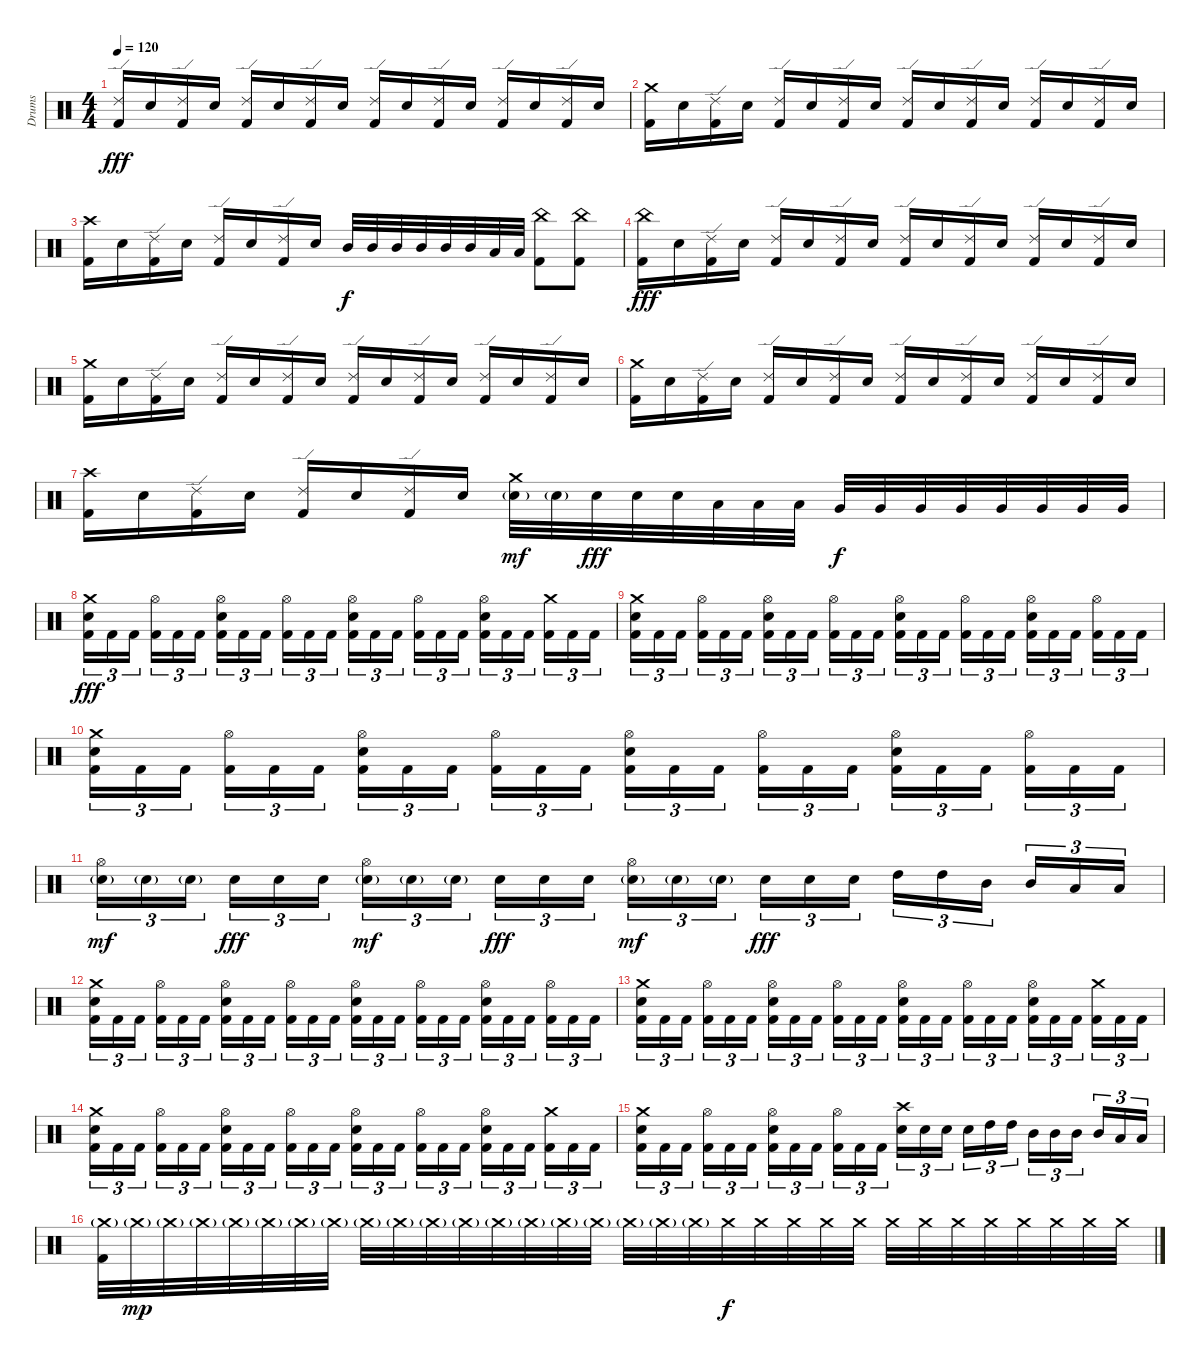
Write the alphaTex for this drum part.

\track ("Drums" "Drums") {instrument percussion}
\staff {score}
\articulation defaults
\ts (4 4)
\tempo 120
\clef neutral
\ks c
("Ride (edge) 2" "Kick (hit) 2").16{dy fff} "Electric Snare (hit)".16 ("Ride (edge) 2" "Kick (hit) 2").16 "Electric Snare (hit)".16 ("Ride (edge) 2" "Kick (hit) 2").16 "Electric Snare (hit)".16 ("Ride (edge) 2" "Kick (hit) 2").16 "Electric Snare (hit)".16 ("Ride (edge) 2" "Kick (hit) 2").16 "Electric Snare (hit)".16 ("Ride (edge) 2" "Kick (hit) 2").16 "Electric Snare (hit)".16 ("Ride (edge) 2" "Kick (hit) 2").16 "Electric Snare (hit)".16 ("Ride (edge) 2" "Kick (hit) 2").16 "Electric Snare (hit)".16 |
("Crash medium (hit)" "Kick (hit) 2").16 "Electric Snare (hit)".16 ("Ride (edge) 2" "Kick (hit) 2").16 "Electric Snare (hit)".16 ("Ride (edge) 2" "Kick (hit) 2").16 "Electric Snare (hit)".16 ("Ride (edge) 2" "Kick (hit) 2").16 "Electric Snare (hit)".16 ("Ride (edge) 2" "Kick (hit) 2").16 "Electric Snare (hit)".16 ("Ride (edge) 2" "Kick (hit) 2").16 "Electric Snare (hit)".16 ("Ride (edge) 2" "Kick (hit) 2").16 "Electric Snare (hit)".16 ("Ride (edge) 2" "Kick (hit) 2").16 "Electric Snare (hit)".16 |
("Crash high (hit)" "Kick (hit) 2").16 "Electric Snare (hit)".16 ("Ride (edge) 2" "Kick (hit) 2").16 "Electric Snare (hit)".16 ("Ride (edge) 2" "Kick (hit) 2").16 "Electric Snare (hit)".16 ("Ride (edge) 2" "Kick (hit) 2").16 "Electric Snare (hit)".16 "Mid Tom (hit)".32{dy f} "Mid Tom (hit)".32 "Mid Tom (hit)".32 "Mid Tom (hit)".32 "Mid Tom (hit)".32 "Mid Tom (hit)".32 "Low Tom (hit)".32 "Low Tom (hit)".32 ("China (hit)" "Kick (hit) 2").8 ("China (hit)" "Kick (hit) 2").8 |
("China (hit)" "Kick (hit) 2").16{dy fff} "Electric Snare (hit)".16 ("Ride (edge) 2" "Kick (hit) 2").16 "Electric Snare (hit)".16 ("Ride (edge) 2" "Kick (hit) 2").16 "Electric Snare (hit)".16 ("Ride (edge) 2" "Kick (hit) 2").16 "Electric Snare (hit)".16 ("Ride (edge) 2" "Kick (hit) 2").16 "Electric Snare (hit)".16 ("Ride (edge) 2" "Kick (hit) 2").16 "Electric Snare (hit)".16 ("Ride (edge) 2" "Kick (hit) 2").16 "Electric Snare (hit)".16 ("Ride (edge) 2" "Kick (hit) 2").16 "Electric Snare (hit)".16 |
("Crash medium (hit)" "Kick (hit) 2").16 "Electric Snare (hit)".16 ("Ride (edge) 2" "Kick (hit) 2").16 "Electric Snare (hit)".16 ("Ride (edge) 2" "Kick (hit) 2").16 "Electric Snare (hit)".16 ("Ride (edge) 2" "Kick (hit) 2").16 "Electric Snare (hit)".16 ("Ride (edge) 2" "Kick (hit) 2").16 "Electric Snare (hit)".16 ("Ride (edge) 2" "Kick (hit) 2").16 "Electric Snare (hit)".16 ("Ride (edge) 2" "Kick (hit) 2").16 "Electric Snare (hit)".16 ("Ride (edge) 2" "Kick (hit) 2").16 "Electric Snare (hit)".16 |
("Crash medium (hit)" "Kick (hit) 2").16 "Electric Snare (hit)".16 ("Ride (edge) 2" "Kick (hit) 2").16 "Electric Snare (hit)".16 ("Ride (edge) 2" "Kick (hit) 2").16 "Electric Snare (hit)".16 ("Ride (edge) 2" "Kick (hit) 2").16 "Electric Snare (hit)".16 ("Ride (edge) 2" "Kick (hit) 2").16 "Electric Snare (hit)".16 ("Ride (edge) 2" "Kick (hit) 2").16 "Electric Snare (hit)".16 ("Ride (edge) 2" "Kick (hit) 2").16 "Electric Snare (hit)".16 ("Ride (edge) 2" "Kick (hit) 2").16 "Electric Snare (hit)".16 |
("Crash high (hit)" "Kick (hit) 2").16 "Electric Snare (hit)".16 ("Ride (edge) 2" "Kick (hit) 2").16 "Electric Snare (hit)".16 ("Ride (edge) 2" "Kick (hit) 2").16 "Electric Snare (hit)".16 ("Ride (edge) 2" "Kick (hit) 2").16 "Electric Snare (hit)".16 ("Crash medium (hit)" "Electric Snare (hit)"{g}).32{dy mf} "Electric Snare (hit)"{g}.32 "Electric Snare (hit)".32{dy fff} "Electric Snare (hit)".32 "Electric Snare (hit)".32 "Low Tom (hit)".32 "Low Tom (hit)".32 "Low Tom (hit)".32 "Very Low Tom (hit)".32{dy f} "Very Low Tom (hit)".32 "Very Low Tom (hit)".32 "Very Low Tom (hit)".32 "Very Low Tom (hit)".32 "Very Low Tom (hit)".32 "Very Low Tom (hit)".32 "Very Low Tom (hit)".32 |
("Crash medium (hit)" "Electric Snare (hit)" "Kick (hit) 2").16{tu (3 2) dy fff} "Kick (hit) 2".16{tu (3 2)} "Kick (hit) 2".16{tu (3 2)} ("Hi-Hat (open)" "Kick (hit) 2").16{tu (3 2)} "Kick (hit) 2".16{tu (3 2)} "Kick (hit) 2".16{tu (3 2)} ("Hi-Hat (open)" "Electric Snare (hit)" "Kick (hit) 2").16{tu (3 2)} "Kick (hit) 2".16{tu (3 2)} "Kick (hit) 2".16{tu (3 2)} ("Hi-Hat (open)" "Kick (hit) 2").16{tu (3 2)} "Kick (hit) 2".16{tu (3 2)} "Kick (hit) 2".16{tu (3 2)} ("Hi-Hat (open)" "Electric Snare (hit)" "Kick (hit) 2").16{tu (3 2)} "Kick (hit) 2".16{tu (3 2)} "Kick (hit) 2".16{tu (3 2)} ("Hi-Hat (open)" "Kick (hit) 2").16{tu (3 2)} "Kick (hit) 2".16{tu (3 2)} "Kick (hit) 2".16{tu (3 2)} ("Hi-Hat (open)" "Electric Snare (hit)" "Kick (hit) 2").16{tu (3 2)} "Kick (hit) 2".16{tu (3 2)} "Kick (hit) 2".16{tu (3 2)} ("Crash medium (hit)" "Kick (hit) 2").16{tu (3 2)} "Kick (hit) 2".16{tu (3 2)} "Kick (hit) 2".16{tu (3 2)} |
("Crash medium (hit)" "Electric Snare (hit)" "Kick (hit) 2").16{tu (3 2)} "Kick (hit) 2".16{tu (3 2)} "Kick (hit) 2".16{tu (3 2)} ("Hi-Hat (open)" "Kick (hit) 2").16{tu (3 2)} "Kick (hit) 2".16{tu (3 2)} "Kick (hit) 2".16{tu (3 2)} ("Hi-Hat (open)" "Electric Snare (hit)" "Kick (hit) 2").16{tu (3 2)} "Kick (hit) 2".16{tu (3 2)} "Kick (hit) 2".16{tu (3 2)} ("Hi-Hat (open)" "Kick (hit) 2").16{tu (3 2)} "Kick (hit) 2".16{tu (3 2)} "Kick (hit) 2".16{tu (3 2)} ("Hi-Hat (open)" "Electric Snare (hit)" "Kick (hit) 2").16{tu (3 2)} "Kick (hit) 2".16{tu (3 2)} "Kick (hit) 2".16{tu (3 2)} ("Hi-Hat (open)" "Kick (hit) 2").16{tu (3 2)} "Kick (hit) 2".16{tu (3 2)} "Kick (hit) 2".16{tu (3 2)} ("Hi-Hat (open)" "Electric Snare (hit)" "Kick (hit) 2").16{tu (3 2)} "Kick (hit) 2".16{tu (3 2)} "Kick (hit) 2".16{tu (3 2)} ("Hi-Hat (open)" "Kick (hit) 2").16{tu (3 2)} "Kick (hit) 2".16{tu (3 2)} "Kick (hit) 2".16{tu (3 2)} |
("Crash medium (hit)" "Electric Snare (hit)" "Kick (hit) 2").16{tu (3 2)} "Kick (hit) 2".16{tu (3 2)} "Kick (hit) 2".16{tu (3 2)} ("Hi-Hat (open)" "Kick (hit) 2").16{tu (3 2)} "Kick (hit) 2".16{tu (3 2)} "Kick (hit) 2".16{tu (3 2)} ("Hi-Hat (open)" "Electric Snare (hit)" "Kick (hit) 2").16{tu (3 2)} "Kick (hit) 2".16{tu (3 2)} "Kick (hit) 2".16{tu (3 2)} ("Hi-Hat (open)" "Kick (hit) 2").16{tu (3 2)} "Kick (hit) 2".16{tu (3 2)} "Kick (hit) 2".16{tu (3 2)} ("Hi-Hat (open)" "Electric Snare (hit)" "Kick (hit) 2").16{tu (3 2)} "Kick (hit) 2".16{tu (3 2)} "Kick (hit) 2".16{tu (3 2)} ("Hi-Hat (open)" "Kick (hit) 2").16{tu (3 2)} "Kick (hit) 2".16{tu (3 2)} "Kick (hit) 2".16{tu (3 2)} ("Hi-Hat (open)" "Electric Snare (hit)" "Kick (hit) 2").16{tu (3 2)} "Kick (hit) 2".16{tu (3 2)} "Kick (hit) 2".16{tu (3 2)} ("Hi-Hat (open)" "Kick (hit) 2").16{tu (3 2)} "Kick (hit) 2".16{tu (3 2)} "Kick (hit) 2".16{tu (3 2)} |
("Hi-Hat (open)" "Electric Snare (hit)"{g}).16{tu (3 2) dy mf} "Electric Snare (hit)"{g}.16{tu (3 2)} "Electric Snare (hit)"{g}.16{tu (3 2)} "Electric Snare (hit)".16{tu (3 2) dy fff} "Electric Snare (hit)".16{tu (3 2)} "Electric Snare (hit)".16{tu (3 2)} ("Hi-Hat (open)" "Electric Snare (hit)"{g}).16{tu (3 2) dy mf} "Electric Snare (hit)"{g}.16{tu (3 2)} "Electric Snare (hit)"{g}.16{tu (3 2)} "Electric Snare (hit)".16{tu (3 2) dy fff} "Electric Snare (hit)".16{tu (3 2)} "Electric Snare (hit)".16{tu (3 2)} ("Hi-Hat (open)" "Electric Snare (hit)"{g}).16{tu (3 2) dy mf} "Electric Snare (hit)"{g}.16{tu (3 2)} "Electric Snare (hit)"{g}.16{tu (3 2)} "Electric Snare (hit)".16{tu (3 2) dy fff} "Electric Snare (hit)".16{tu (3 2)} "Electric Snare (hit)".16{tu (3 2)} "High Tom (hit)".16{tu (3 2)} "High Tom (hit)".16{tu (3 2)} "Mid Tom (hit)".16{tu (3 2)} "Mid Tom (hit)".16{tu (3 2)} "Low Tom (hit)".16{tu (3 2)} "Low Tom (hit)".16{tu (3 2)} |
("Crash medium (hit)" "Electric Snare (hit)" "Kick (hit) 2").16{tu (3 2)} "Kick (hit) 2".16{tu (3 2)} "Kick (hit) 2".16{tu (3 2)} ("Hi-Hat (open)" "Kick (hit) 2").16{tu (3 2)} "Kick (hit) 2".16{tu (3 2)} "Kick (hit) 2".16{tu (3 2)} ("Hi-Hat (open)" "Electric Snare (hit)" "Kick (hit) 2").16{tu (3 2)} "Kick (hit) 2".16{tu (3 2)} "Kick (hit) 2".16{tu (3 2)} ("Hi-Hat (open)" "Kick (hit) 2").16{tu (3 2)} "Kick (hit) 2".16{tu (3 2)} "Kick (hit) 2".16{tu (3 2)} ("Hi-Hat (open)" "Electric Snare (hit)" "Kick (hit) 2").16{tu (3 2)} "Kick (hit) 2".16{tu (3 2)} "Kick (hit) 2".16{tu (3 2)} ("Hi-Hat (open)" "Kick (hit) 2").16{tu (3 2)} "Kick (hit) 2".16{tu (3 2)} "Kick (hit) 2".16{tu (3 2)} ("Hi-Hat (open)" "Electric Snare (hit)" "Kick (hit) 2").16{tu (3 2)} "Kick (hit) 2".16{tu (3 2)} "Kick (hit) 2".16{tu (3 2)} ("Hi-Hat (open)" "Kick (hit) 2").16{tu (3 2)} "Kick (hit) 2".16{tu (3 2)} "Kick (hit) 2".16{tu (3 2)} |
("Crash medium (hit)" "Electric Snare (hit)" "Kick (hit) 2").16{tu (3 2)} "Kick (hit) 2".16{tu (3 2)} "Kick (hit) 2".16{tu (3 2)} ("Hi-Hat (open)" "Kick (hit) 2").16{tu (3 2)} "Kick (hit) 2".16{tu (3 2)} "Kick (hit) 2".16{tu (3 2)} ("Hi-Hat (open)" "Electric Snare (hit)" "Kick (hit) 2").16{tu (3 2)} "Kick (hit) 2".16{tu (3 2)} "Kick (hit) 2".16{tu (3 2)} ("Hi-Hat (open)" "Kick (hit) 2").16{tu (3 2)} "Kick (hit) 2".16{tu (3 2)} "Kick (hit) 2".16{tu (3 2)} ("Hi-Hat (open)" "Electric Snare (hit)" "Kick (hit) 2").16{tu (3 2)} "Kick (hit) 2".16{tu (3 2)} "Kick (hit) 2".16{tu (3 2)} ("Hi-Hat (open)" "Kick (hit) 2").16{tu (3 2)} "Kick (hit) 2".16{tu (3 2)} "Kick (hit) 2".16{tu (3 2)} ("Hi-Hat (open)" "Electric Snare (hit)" "Kick (hit) 2").16{tu (3 2)} "Kick (hit) 2".16{tu (3 2)} "Kick (hit) 2".16{tu (3 2)} ("Crash medium (hit)" "Kick (hit) 2").16{tu (3 2)} "Kick (hit) 2".16{tu (3 2)} "Kick (hit) 2".16{tu (3 2)} |
("Crash medium (hit)" "Electric Snare (hit)" "Kick (hit) 2").16{tu (3 2)} "Kick (hit) 2".16{tu (3 2)} "Kick (hit) 2".16{tu (3 2)} ("Hi-Hat (open)" "Kick (hit) 2").16{tu (3 2)} "Kick (hit) 2".16{tu (3 2)} "Kick (hit) 2".16{tu (3 2)} ("Hi-Hat (open)" "Electric Snare (hit)" "Kick (hit) 2").16{tu (3 2)} "Kick (hit) 2".16{tu (3 2)} "Kick (hit) 2".16{tu (3 2)} ("Hi-Hat (open)" "Kick (hit) 2").16{tu (3 2)} "Kick (hit) 2".16{tu (3 2)} "Kick (hit) 2".16{tu (3 2)} ("Hi-Hat (open)" "Electric Snare (hit)" "Kick (hit) 2").16{tu (3 2)} "Kick (hit) 2".16{tu (3 2)} "Kick (hit) 2".16{tu (3 2)} ("Hi-Hat (open)" "Kick (hit) 2").16{tu (3 2)} "Kick (hit) 2".16{tu (3 2)} "Kick (hit) 2".16{tu (3 2)} ("Hi-Hat (open)" "Electric Snare (hit)" "Kick (hit) 2").16{tu (3 2)} "Kick (hit) 2".16{tu (3 2)} "Kick (hit) 2".16{tu (3 2)} ("Crash medium (hit)" "Kick (hit) 2").16{tu (3 2)} "Kick (hit) 2".16{tu (3 2)} "Kick (hit) 2".16{tu (3 2)} |
("Crash medium (hit)" "Electric Snare (hit)" "Kick (hit) 2").16{tu (3 2)} "Kick (hit) 2".16{tu (3 2)} "Kick (hit) 2".16{tu (3 2)} ("Hi-Hat (open)" "Kick (hit) 2").16{tu (3 2)} "Kick (hit) 2".16{tu (3 2)} "Kick (hit) 2".16{tu (3 2)} ("Hi-Hat (open)" "Electric Snare (hit)" "Kick (hit) 2").16{tu (3 2)} "Kick (hit) 2".16{tu (3 2)} "Kick (hit) 2".16{tu (3 2)} ("Hi-Hat (open)" "Kick (hit) 2").16{tu (3 2)} "Kick (hit) 2".16{tu (3 2)} "Kick (hit) 2".16{tu (3 2)} ("Crash high (hit)" "Electric Snare (hit)").16{tu (3 2)} "Electric Snare (hit)".16{tu (3 2)} "Electric Snare (hit)".16{tu (3 2)} "Electric Snare (hit)".16{tu (3 2)} "High Tom (hit)".16{tu (3 2)} "High Tom (hit)".16{tu (3 2)} "Mid Tom (hit)".16{tu (3 2)} "Mid Tom (hit)".16{tu (3 2)} "Mid Tom (hit)".16{tu (3 2)} "Mid Tom (hit)".16{tu (3 2)} "Low Tom (hit)".16{tu (3 2)} "Low Tom (hit)".16{tu (3 2)} |
("Crash medium (hit)"{g} "Kick (hit) 2").32 "Crash medium (hit)"{g}.32{dy mp} "Crash medium (hit)"{g}.32 "Crash medium (hit)"{g}.32 "Crash medium (hit)"{g}.32 "Crash medium (hit)"{g}.32 "Crash medium (hit)"{g}.32 "Crash medium (hit)"{g}.32 "Crash medium (hit)"{g}.32 "Crash medium (hit)"{g}.32 "Crash medium (hit)"{g}.32 "Crash medium (hit)"{g}.32 "Crash medium (hit)"{g}.32 "Crash medium (hit)"{g}.32 "Crash medium (hit)"{g}.32 "Crash medium (hit)"{g}.32 "Crash medium (hit)"{g}.32 "Crash medium (hit)"{g}.32 "Crash medium (hit)"{g}.32 "Crash medium (hit)".32{dy f} "Crash medium (hit)".32 "Crash medium (hit)".32 "Crash medium (hit)".32 "Crash medium (hit)".32 "Crash medium (hit)".32 "Crash medium (hit)".32 "Crash medium (hit)".32 "Crash medium (hit)".32 "Crash medium (hit)".32 "Crash medium (hit)".32 "Crash medium (hit)".32 "Crash medium (hit)".32
